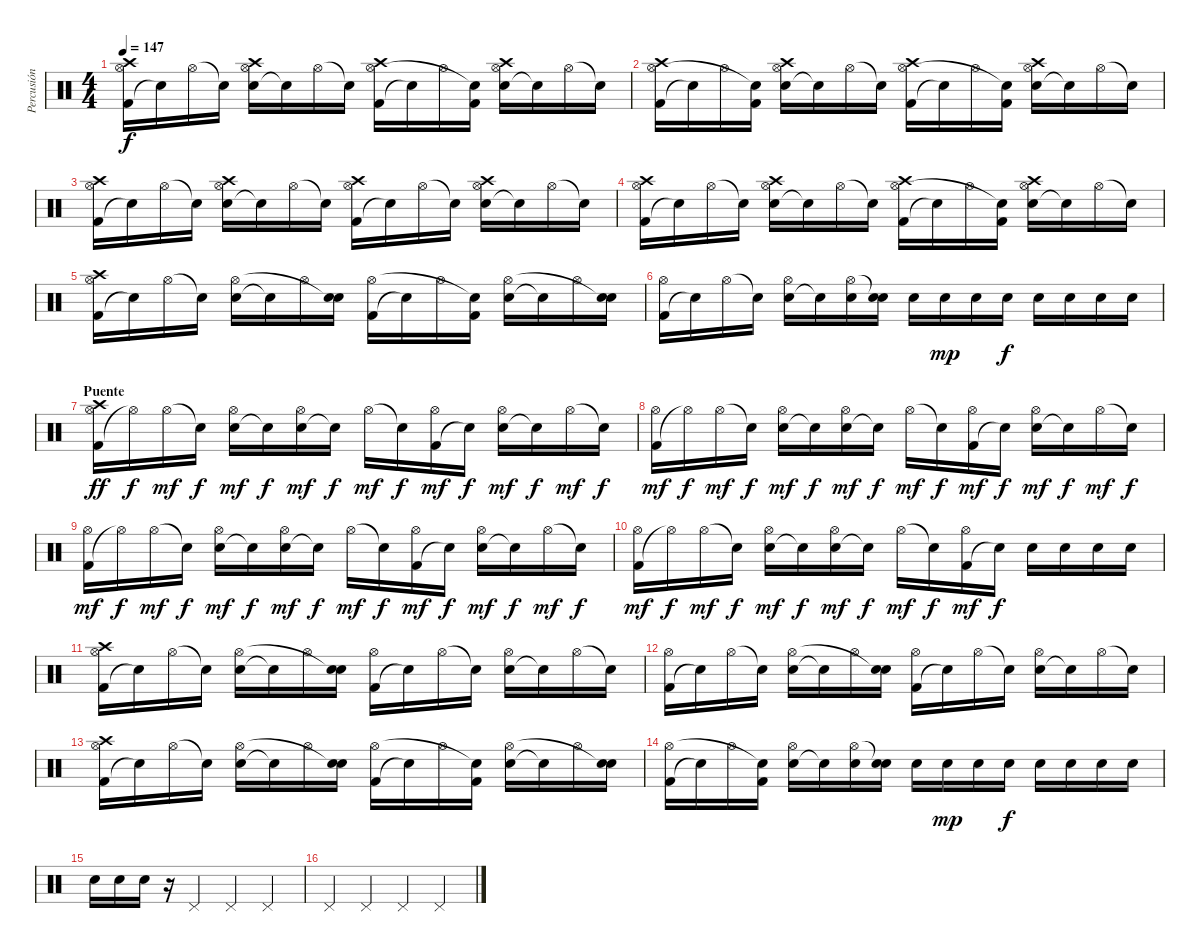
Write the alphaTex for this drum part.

\track ("Percusión" "Percusión") {instrument percussion}
\staff {score}
\articulation defaults
\ts (4 4)
\tempo 147
\clef neutral
\ks c
("Kick (hit) 2" "Hi-Hat (open)" "Crash high (hit)").16{dy f} "Snare (hit)"{t}.16 "Hi-Hat (open)".16 "Snare (hit)"{t}.16 ("Electric Snare (hit)" "Hi-Hat (open)" "Crash high (hit)").16 "Snare (hit)"{t}.16 "Hi-Hat (open)".16 "Snare (hit)"{t}.16 ("Kick (hit) 2" "Hi-Hat (open)" "Crash high (hit)").16 "Snare (hit)"{t}.16 "Hi-Hat (open)".16 ("Kick (hit) 2" "Snare (hit)"{t}).16 ("Electric Snare (hit)" "Hi-Hat (open)" "Crash high (hit)").16 "Snare (hit)"{t}.16 "Hi-Hat (open)".16 "Snare (hit)"{t}.16 |
("Kick (hit) 2" "Hi-Hat (open)" "Crash high (hit)").16 "Snare (hit)"{t}.16 "Hi-Hat (open)".16 ("Kick (hit) 2" "Snare (hit)"{t}).16 ("Electric Snare (hit)" "Hi-Hat (open)" "Crash high (hit)").16 "Snare (hit)"{t}.16 "Hi-Hat (open)".16 "Snare (hit)"{t}.16 ("Kick (hit) 2" "Hi-Hat (open)" "Crash high (hit)").16 "Snare (hit)"{t}.16 "Hi-Hat (open)".16 ("Kick (hit) 2" "Snare (hit)"{t}).16 ("Electric Snare (hit)" "Hi-Hat (open)" "Crash high (hit)").16 "Snare (hit)"{t}.16 "Hi-Hat (open)".16 "Snare (hit)"{t}.16 |
("Kick (hit) 2" "Hi-Hat (open)" "Crash high (hit)").16 "Snare (hit)"{t}.16 "Hi-Hat (open)".16 "Snare (hit)"{t}.16 ("Electric Snare (hit)" "Hi-Hat (open)" "Crash high (hit)").16 "Snare (hit)"{t}.16 "Hi-Hat (open)".16 "Snare (hit)"{t}.16 ("Kick (hit) 2" "Hi-Hat (open)" "Crash high (hit)").16 "Snare (hit)"{t}.16 "Hi-Hat (open)".16 "Snare (hit)"{t}.16 ("Electric Snare (hit)" "Hi-Hat (open)" "Crash high (hit)").16 "Snare (hit)"{t}.16 "Hi-Hat (open)".16 "Snare (hit)"{t}.16 |
("Kick (hit) 2" "Hi-Hat (open)" "Crash high (hit)").16 "Snare (hit)"{t}.16 "Hi-Hat (open)".16 "Snare (hit)"{t}.16 ("Electric Snare (hit)" "Hi-Hat (open)" "Crash high (hit)").16 "Snare (hit)"{t}.16 "Hi-Hat (open)".16 "Snare (hit)"{t}.16 ("Kick (hit) 2" "Hi-Hat (open)" "Crash high (hit)").16 "Snare (hit)"{t}.16 "Hi-Hat (open)".16 ("Kick (hit) 2" "Snare (hit)"{t}).16 ("Electric Snare (hit)" "Hi-Hat (open)" "Crash high (hit)").16 "Snare (hit)"{t}.16 "Hi-Hat (open)".16 "Snare (hit)"{t}.16 |
("Kick (hit) 2" "Hi-Hat (open)" "Crash high (hit)").16 "Snare (hit)"{t}.16 "Hi-Hat (open)".16 "Snare (hit)"{t}.16 ("Electric Snare (hit)" "Hi-Hat (open)").16 "Snare (hit)"{t}.16 "Hi-Hat (open)".16 ("Electric Snare (hit)" "Snare (hit)"{t}).16 ("Kick (hit) 2" "Hi-Hat (open)").16 "Snare (hit)"{t}.16 "Hi-Hat (open)".16 ("Kick (hit) 2" "Snare (hit)"{t}).16 ("Electric Snare (hit)" "Hi-Hat (open)").16 "Snare (hit)"{t}.16 "Hi-Hat (open)".16 ("Electric Snare (hit)" "Snare (hit)"{t}).16 |
("Kick (hit) 2" "Hi-Hat (open)").16 "Snare (hit)"{t}.16 "Hi-Hat (open)".16 "Snare (hit)"{t}.16 ("Electric Snare (hit)" "Hi-Hat (open)").16 "Snare (hit)"{t}.16 ("Electric Snare (hit)" "Hi-Hat (open)").16 ("Electric Snare (hit)" "Snare (hit)"{t}).16 "Electric Snare (hit)".16 "Electric Snare (hit)".16{dy mp} "Electric Snare (hit)".16 "Electric Snare (hit)".16{dy f} "Electric Snare (hit)".16 "Electric Snare (hit)".16 "Electric Snare (hit)".16 "Electric Snare (hit)".16 |
\section ("" "Puente")
("Kick (hit) 2" "Hi-Hat (open)" "Crash high (hit)").16{dy ff} "Hi-Hat (open)"{t}.16{dy f} "Hi-Hat (open)".16{dy mf} "Snare (hit)"{t}.16{dy f} ("Electric Snare (hit)" "Hi-Hat (open)").16{dy mf} "Snare (hit)"{t}.16{dy f} ("Electric Snare (hit)" "Hi-Hat (open)").16{dy mf} "Snare (hit)"{t}.16{dy f} "Hi-Hat (open)".16{dy mf} "Snare (hit)"{t}.16{dy f} ("Kick (hit) 2" "Hi-Hat (open)").16{dy mf} "Snare (hit)"{t}.16{dy f} ("Electric Snare (hit)" "Hi-Hat (open)").16{dy mf} "Snare (hit)"{t}.16{dy f} "Hi-Hat (open)".16{dy mf} "Snare (hit)"{t}.16{dy f} |
("Kick (hit) 2" "Hi-Hat (open)").16{dy mf} "Hi-Hat (open)"{t}.16{dy f} "Hi-Hat (open)".16{dy mf} "Snare (hit)"{t}.16{dy f} ("Electric Snare (hit)" "Hi-Hat (open)").16{dy mf} "Snare (hit)"{t}.16{dy f} ("Electric Snare (hit)" "Hi-Hat (open)").16{dy mf} "Snare (hit)"{t}.16{dy f} "Hi-Hat (open)".16{dy mf} "Snare (hit)"{t}.16{dy f} ("Kick (hit) 2" "Hi-Hat (open)").16{dy mf} "Snare (hit)"{t}.16{dy f} ("Electric Snare (hit)" "Hi-Hat (open)").16{dy mf} "Snare (hit)"{t}.16{dy f} "Hi-Hat (open)".16{dy mf} "Snare (hit)"{t}.16{dy f} |
("Kick (hit) 2" "Hi-Hat (open)").16{dy mf} "Hi-Hat (open)"{t}.16{dy f} "Hi-Hat (open)".16{dy mf} "Snare (hit)"{t}.16{dy f} ("Electric Snare (hit)" "Hi-Hat (open)").16{dy mf} "Snare (hit)"{t}.16{dy f} ("Electric Snare (hit)" "Hi-Hat (open)").16{dy mf} "Snare (hit)"{t}.16{dy f} "Hi-Hat (open)".16{dy mf} "Snare (hit)"{t}.16{dy f} ("Kick (hit) 2" "Hi-Hat (open)").16{dy mf} "Snare (hit)"{t}.16{dy f} ("Electric Snare (hit)" "Hi-Hat (open)").16{dy mf} "Snare (hit)"{t}.16{dy f} "Hi-Hat (open)".16{dy mf} "Snare (hit)"{t}.16{dy f} |
("Kick (hit) 2" "Hi-Hat (open)").16{dy mf} "Hi-Hat (open)"{t}.16{dy f} "Hi-Hat (open)".16{dy mf} "Snare (hit)"{t}.16{dy f} ("Electric Snare (hit)" "Hi-Hat (open)").16{dy mf} "Snare (hit)"{t}.16{dy f} ("Electric Snare (hit)" "Hi-Hat (open)").16{dy mf} "Snare (hit)"{t}.16{dy f} "Hi-Hat (open)".16{dy mf} "Snare (hit)"{t}.16{dy f} ("Kick (hit) 2" "Hi-Hat (open)").16{dy mf} "Snare (hit)"{t}.16{dy f} "Electric Snare (hit)".16 "Electric Snare (hit)".16 "Electric Snare (hit)".16 "Electric Snare (hit)".16 |
("Kick (hit) 2" "Hi-Hat (open)" "Crash high (hit)").16 "Snare (hit)"{t}.16 "Hi-Hat (open)".16 "Snare (hit)"{t}.16 ("Electric Snare (hit)" "Hi-Hat (open)").16 "Snare (hit)"{t}.16 "Hi-Hat (open)".16 ("Electric Snare (hit)" "Snare (hit)"{t}).16 ("Kick (hit) 2" "Hi-Hat (open)").16 "Snare (hit)"{t}.16 "Hi-Hat (open)".16 "Snare (hit)"{t}.16 ("Electric Snare (hit)" "Hi-Hat (open)").16 "Snare (hit)"{t}.16 "Hi-Hat (open)".16 "Snare (hit)"{t}.16 |
("Kick (hit) 2" "Hi-Hat (open)").16 "Snare (hit)"{t}.16 "Hi-Hat (open)".16 "Snare (hit)"{t}.16 ("Electric Snare (hit)" "Hi-Hat (open)").16 "Snare (hit)"{t}.16 "Hi-Hat (open)".16 ("Electric Snare (hit)" "Snare (hit)"{t}).16 ("Kick (hit) 2" "Hi-Hat (open)").16 "Snare (hit)"{t}.16 "Hi-Hat (open)".16 "Snare (hit)"{t}.16 ("Electric Snare (hit)" "Hi-Hat (open)").16 "Snare (hit)"{t}.16 "Hi-Hat (open)".16 "Snare (hit)"{t}.16 |
("Kick (hit) 2" "Hi-Hat (open)" "Crash high (hit)").16 "Snare (hit)"{t}.16 "Hi-Hat (open)".16 "Snare (hit)"{t}.16 ("Electric Snare (hit)" "Hi-Hat (open)").16 "Snare (hit)"{t}.16 "Hi-Hat (open)".16 ("Electric Snare (hit)" "Snare (hit)"{t}).16 ("Kick (hit) 2" "Hi-Hat (open)").16 "Snare (hit)"{t}.16 "Hi-Hat (open)".16 ("Kick (hit) 2" "Snare (hit)"{t}).16 ("Electric Snare (hit)" "Hi-Hat (open)").16 "Snare (hit)"{t}.16 "Hi-Hat (open)".16 ("Electric Snare (hit)" "Snare (hit)"{t}).16 |
("Kick (hit) 2" "Hi-Hat (open)").16 "Snare (hit)"{t}.16 "Hi-Hat (open)".16 ("Kick (hit) 2" "Snare (hit)"{t}).16 ("Electric Snare (hit)" "Hi-Hat (open)").16 "Snare (hit)"{t}.16 ("Electric Snare (hit)" "Hi-Hat (open)").16 ("Electric Snare (hit)" "Snare (hit)"{t}).16 "Electric Snare (hit)".16 "Electric Snare (hit)".16{dy mp} "Electric Snare (hit)".16 "Electric Snare (hit)".16{dy f} "Electric Snare (hit)".16 "Electric Snare (hit)".16 "Electric Snare (hit)".16 "Electric Snare (hit)".16 |
"Electric Snare (hit)".16 "Electric Snare (hit)".16 "Electric Snare (hit)".16 r.16 "Pedal Hi-Hat (hit)".4 "Pedal Hi-Hat (hit)".4 "Pedal Hi-Hat (hit)".4 |
"Pedal Hi-Hat (hit)".4 "Pedal Hi-Hat (hit)".4 "Pedal Hi-Hat (hit)".4 "Pedal Hi-Hat (hit)".4
